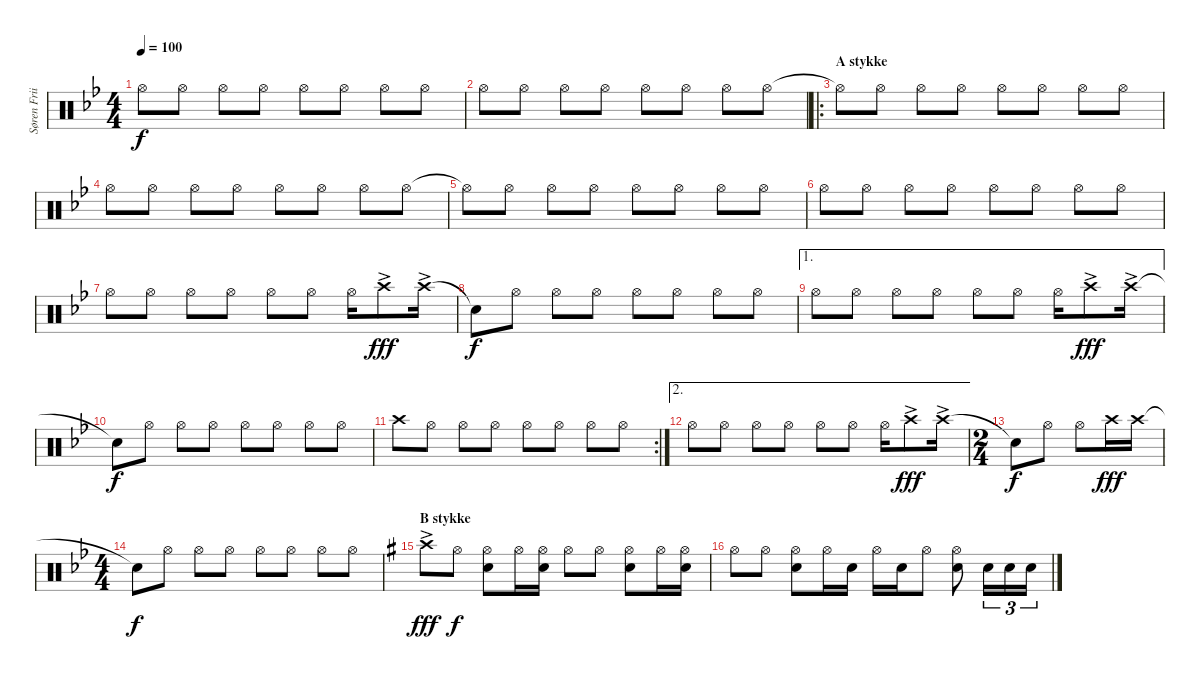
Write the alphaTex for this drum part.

\track ("Søren Friis (Drums)" "Søren Frii") {instrument percussion}
\staff {score}
\articulation defaults
\ts (4 4)
\tempo 100
\clef neutral
\ks bb "Hi-Hat (open)".8{dy f} "Hi-Hat (open)".8 "Hi-Hat (open)".8 "Hi-Hat (open)".8 "Hi-Hat (open)".8 "Hi-Hat (open)".8 "Hi-Hat (open)".8 "Hi-Hat (open)".8
|
"Hi-Hat (open)".8 "Hi-Hat (open)".8 "Hi-Hat (open)".8 "Hi-Hat (open)".8 "Hi-Hat (open)".8 "Hi-Hat (open)".8 "Hi-Hat (open)".8 "Hi-Hat (open)".8 |
\ro
\section ("" "A stykke")
"Hi-Hat (open)"{t}.8 "Hi-Hat (open)".8 "Hi-Hat (open)".8 "Hi-Hat (open)".8 "Hi-Hat (open)".8 "Hi-Hat (open)".8 "Hi-Hat (open)".8 "Hi-Hat (open)".8 |
"Hi-Hat (open)".8 "Hi-Hat (open)".8 "Hi-Hat (open)".8 "Hi-Hat (open)".8 "Hi-Hat (open)".8 "Hi-Hat (open)".8 "Hi-Hat (open)".8 "Hi-Hat (open)".8 |
"Hi-Hat (open)"{t}.8 "Hi-Hat (open)".8 "Hi-Hat (open)".8 "Hi-Hat (open)".8 "Hi-Hat (open)".8 "Hi-Hat (open)".8 "Hi-Hat (open)".8 "Hi-Hat (open)".8 |
"Hi-Hat (open)".8 "Hi-Hat (open)".8 "Hi-Hat (open)".8 "Hi-Hat (open)".8 "Hi-Hat (open)".8 "Hi-Hat (open)".8 "Hi-Hat (open)".8 "Hi-Hat (open)".8 |
"Hi-Hat (open)".8 "Hi-Hat (open)".8 "Hi-Hat (open)".8 "Hi-Hat (open)".8 "Hi-Hat (open)".8 "Hi-Hat (open)".8 "Hi-Hat (open)".16 "Crash high (hit)"{ac}.8{dy fff} "Crash high (hit)"{ac}.16 |
"Snare (hit)"{t}.8{dy f} "Hi-Hat (open)".8 "Hi-Hat (open)".8 "Hi-Hat (open)".8 "Hi-Hat (open)".8 "Hi-Hat (open)".8 "Hi-Hat (open)".8 "Hi-Hat (open)".8 |
\ae 1 "Hi-Hat (open)".8 "Hi-Hat (open)".8 "Hi-Hat (open)".8 "Hi-Hat (open)".8 "Hi-Hat (open)".8 "Hi-Hat (open)".8 "Hi-Hat (open)".16 "Crash high (hit)"{ac}.8{dy fff} "Crash high (hit)"{ac}.16
|
"Snare (hit)"{t}.8{dy f} "Hi-Hat (open)".8 "Hi-Hat (open)".8 "Hi-Hat (open)".8 "Hi-Hat (open)".8 "Hi-Hat (open)".8 "Hi-Hat (open)".8 "Hi-Hat (open)".8 |
\rc 2 "Crash high (hit)".8 "Hi-Hat (open)".8 "Hi-Hat (open)".8 "Hi-Hat (open)".8 "Hi-Hat (open)".8 "Hi-Hat (open)".8 "Hi-Hat (open)".8 "Hi-Hat (open)".8
|
\ae 2 "Hi-Hat (open)".8 "Hi-Hat (open)".8 "Hi-Hat (open)".8 "Hi-Hat (open)".8 "Hi-Hat (open)".8 "Hi-Hat (open)".8 "Hi-Hat (open)".16 "Crash high (hit)"{ac}.8{dy fff} "Crash high (hit)"{ac}.16
|
\ts (2 4)
"Snare (hit)"{t}.8{dy f} "Hi-Hat (open)".8 "Hi-Hat (open)".8 "Crash high (hit)".16{dy fff} "Crash high (hit)".16 |
\ts (4 4)
"Snare (hit)"{t}.8{dy f} "Hi-Hat (open)".8 "Hi-Hat (open)".8 "Hi-Hat (open)".8 "Hi-Hat (open)".8 "Hi-Hat (open)".8 "Hi-Hat (open)".8 "Hi-Hat (open)".8 |
\section ("" "B stykke")
\ks g "Crash high (hit)"{ac}.8{dy fff} "Hi-Hat (open)".8{dy f}
("Hi-Hat (open)" "Snare (hit) 2").8 "Hi-Hat (open)".16 ("Hi-Hat (open)" "Snare (hit) 2").16 "Hi-Hat (open)".8 "Hi-Hat (open)".8 ("Hi-Hat (open)" "Snare (hit) 2").8 "Hi-Hat (open)".16 ("Hi-Hat (open)" "Snare (hit) 2").16 |
"Hi-Hat (open)".8 "Hi-Hat (open)".8 ("Hi-Hat (open)" "Snare (hit) 2").8 "Hi-Hat (open)".16 "Snare (hit) 2".16 "Hi-Hat (open)".16 "Snare (hit) 2".16 "Hi-Hat (open)".8 ("Hi-Hat (open)" "Snare (hit) 2").8 "Snare (hit) 2".16{tu (3 2)} "Snare (hit) 2".16{tu (3 2)} "Snare (hit) 2".16{tu (3 2)}
